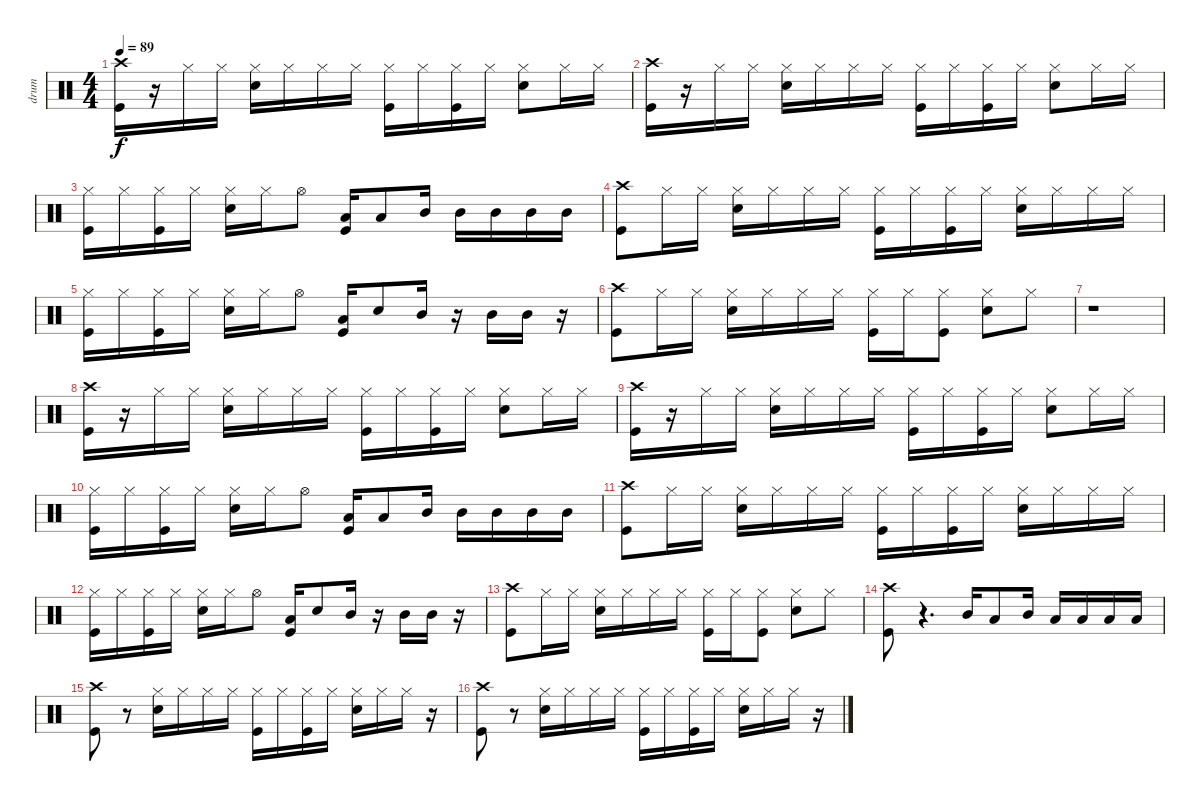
\track ("drum" "drum") {instrument percussion}
\staff {score}
\articulation defaults
\ts (4 4)
\tempo 89
\clef neutral
\ks c
("Crash high (hit)" "Kick (hit)").16{dy f} r.16 "Hi-Hat (closed)".16 "Hi-Hat (closed)".16 ("Hi-Hat (closed)" "Snare (hit) 2").16 "Hi-Hat (closed)".16 "Hi-Hat (closed)".16 "Hi-Hat (closed)".16 ("Kick (hit)" "Hi-Hat (closed)").16 "Hi-Hat (closed)".16 ("Kick (hit)" "Hi-Hat (closed)").16 "Hi-Hat (closed)".16 ("Snare (hit) 2" "Hi-Hat (closed)").8 "Hi-Hat (closed)".16 "Hi-Hat (closed)".16 |
("Crash high (hit)" "Kick (hit)").16 r.16 "Hi-Hat (closed)".16 "Hi-Hat (closed)".16 ("Hi-Hat (closed)" "Snare (hit) 2").16 "Hi-Hat (closed)".16 "Hi-Hat (closed)".16 "Hi-Hat (closed)".16 ("Kick (hit)" "Hi-Hat (closed)").16 "Hi-Hat (closed)".16 ("Kick (hit)" "Hi-Hat (closed)").16 "Hi-Hat (closed)".16 ("Snare (hit) 2" "Hi-Hat (closed)").8 "Hi-Hat (closed)".16 "Hi-Hat (closed)".16 |
("Hi-Hat (closed)" "Kick (hit)").16 "Hi-Hat (closed)".16 ("Hi-Hat (closed)" "Kick (hit)").16 "Hi-Hat (closed)".16 ("Hi-Hat (closed)" "Snare (hit) 2").16 "Hi-Hat (closed)".16 "Hi-Hat (open)".8 ("Low Floor Tom (hit)" "Kick (hit)").16 "Low Floor Tom (hit)".8 "Mid Tom (hit)".16 "Mid Tom (hit)".16 "Mid Tom (hit)".16 "Mid Tom (hit)".16 "Mid Tom (hit)".16 |
("Crash high (hit)" "Kick (hit)").8 "Hi-Hat (closed)".16 "Hi-Hat (closed)".16 ("Hi-Hat (closed)" "Snare (hit) 2").16 "Hi-Hat (closed)".16 "Hi-Hat (closed)".16 "Hi-Hat (closed)".16 ("Hi-Hat (closed)" "Kick (hit)").16 "Hi-Hat (closed)".16 ("Hi-Hat (closed)" "Kick (hit)").16 "Hi-Hat (closed)".16 ("Hi-Hat (closed)" "Snare (hit) 2").16 "Hi-Hat (closed)".16 "Hi-Hat (closed)".16 "Hi-Hat (closed)".16 |
("Kick (hit)" "Hi-Hat (closed)").16 "Hi-Hat (closed)".16 ("Kick (hit)" "Hi-Hat (closed)").16 "Hi-Hat (closed)".16 ("Snare (hit) 2" "Hi-Hat (closed)").16 "Hi-Hat (closed)".16 "Hi-Hat (open)".8 ("Low Floor Tom (hit)" "Kick (hit)").16 "Snare (hit) 2".8 "Mid Tom (hit)".16 r.16 "Mid Tom (hit)".16 "Mid Tom (hit)".16 r.16 |
("Crash high (hit)" "Kick (hit)").8 "Hi-Hat (closed)".16 "Hi-Hat (closed)".16 ("Snare (hit) 2" "Hi-Hat (closed)").16 "Hi-Hat (closed)".16 "Hi-Hat (closed)".16 "Hi-Hat (closed)".16 ("Kick (hit)" "Hi-Hat (closed)").16 "Hi-Hat (closed)".16 ("Kick (hit)" "Hi-Hat (closed)").8 ("Snare (hit) 2" "Hi-Hat (closed)").8 "Hi-Hat (closed)".8 |
r.1 |
("Crash high (hit)" "Kick (hit)").16 r.16 "Hi-Hat (closed)".16 "Hi-Hat (closed)".16 ("Hi-Hat (closed)" "Snare (hit) 2").16 "Hi-Hat (closed)".16 "Hi-Hat (closed)".16 "Hi-Hat (closed)".16 ("Kick (hit)" "Hi-Hat (closed)").16 "Hi-Hat (closed)".16 ("Kick (hit)" "Hi-Hat (closed)").16 "Hi-Hat (closed)".16 ("Snare (hit) 2" "Hi-Hat (closed)").8 "Hi-Hat (closed)".16 "Hi-Hat (closed)".16 |
("Crash high (hit)" "Kick (hit)").16 r.16 "Hi-Hat (closed)".16 "Hi-Hat (closed)".16 ("Hi-Hat (closed)" "Snare (hit) 2").16 "Hi-Hat (closed)".16 "Hi-Hat (closed)".16 "Hi-Hat (closed)".16 ("Kick (hit)" "Hi-Hat (closed)").16 "Hi-Hat (closed)".16 ("Kick (hit)" "Hi-Hat (closed)").16 "Hi-Hat (closed)".16 ("Snare (hit) 2" "Hi-Hat (closed)").8 "Hi-Hat (closed)".16 "Hi-Hat (closed)".16 |
("Hi-Hat (closed)" "Kick (hit)").16 "Hi-Hat (closed)".16 ("Hi-Hat (closed)" "Kick (hit)").16 "Hi-Hat (closed)".16 ("Hi-Hat (closed)" "Snare (hit) 2").16 "Hi-Hat (closed)".16 "Hi-Hat (open)".8 ("Low Floor Tom (hit)" "Kick (hit)").16 "Low Floor Tom (hit)".8 "Mid Tom (hit)".16 "Mid Tom (hit)".16 "Mid Tom (hit)".16 "Mid Tom (hit)".16 "Mid Tom (hit)".16 |
("Crash high (hit)" "Kick (hit)").8 "Hi-Hat (closed)".16 "Hi-Hat (closed)".16 ("Hi-Hat (closed)" "Snare (hit) 2").16 "Hi-Hat (closed)".16 "Hi-Hat (closed)".16 "Hi-Hat (closed)".16 ("Hi-Hat (closed)" "Kick (hit)").16 "Hi-Hat (closed)".16 ("Hi-Hat (closed)" "Kick (hit)").16 "Hi-Hat (closed)".16 ("Hi-Hat (closed)" "Snare (hit) 2").16 "Hi-Hat (closed)".16 "Hi-Hat (closed)".16 "Hi-Hat (closed)".16 |
("Kick (hit)" "Hi-Hat (closed)").16 "Hi-Hat (closed)".16 ("Kick (hit)" "Hi-Hat (closed)").16 "Hi-Hat (closed)".16 ("Snare (hit) 2" "Hi-Hat (closed)").16 "Hi-Hat (closed)".16 "Hi-Hat (open)".8 ("Low Floor Tom (hit)" "Kick (hit)").16 "Snare (hit) 2".8 "Mid Tom (hit)".16 r.16 "Mid Tom (hit)".16 "Mid Tom (hit)".16 r.16 |
("Crash high (hit)" "Kick (hit)").8 "Hi-Hat (closed)".16 "Hi-Hat (closed)".16 ("Snare (hit) 2" "Hi-Hat (closed)").16 "Hi-Hat (closed)".16 "Hi-Hat (closed)".16 "Hi-Hat (closed)".16 ("Kick (hit)" "Hi-Hat (closed)").16 "Hi-Hat (closed)".16 ("Kick (hit)" "Hi-Hat (closed)").8 ("Snare (hit) 2" "Hi-Hat (closed)").8 "Hi-Hat (closed)".8 |
("Crash high (hit)" "Kick (hit)").8 r.4{d} "Mid Tom (hit)".16 "Low Floor Tom (hit)".8 "Mid Tom (hit)".16 "Low Floor Tom (hit)".16 "Low Floor Tom (hit)".16 "Low Floor Tom (hit)".16 "Low Floor Tom (hit)".16 |
("Crash high (hit)" "Kick (hit)").8 r.8 ("Hi-Hat (closed)" "Snare (hit) 2").16 "Hi-Hat (closed)".16 "Hi-Hat (closed)".16 "Hi-Hat (closed)".16 ("Hi-Hat (closed)" "Kick (hit)").16 "Hi-Hat (closed)".16 ("Hi-Hat (closed)" "Kick (hit)").16 "Hi-Hat (closed)".16 ("Hi-Hat (closed)" "Snare (hit) 2").16 "Hi-Hat (closed)".16 "Hi-Hat (closed)".16 r.16 |
("Crash high (hit)" "Kick (hit)").8 r.8 ("Hi-Hat (closed)" "Snare (hit) 2").16 "Hi-Hat (closed)".16 "Hi-Hat (closed)".16 "Hi-Hat (closed)".16 ("Hi-Hat (closed)" "Kick (hit)").16 "Hi-Hat (closed)".16 ("Hi-Hat (closed)" "Kick (hit)").16 "Hi-Hat (closed)".16 ("Hi-Hat (closed)" "Snare (hit) 2").16 "Hi-Hat (closed)".16 "Hi-Hat (closed)".16 r.16
